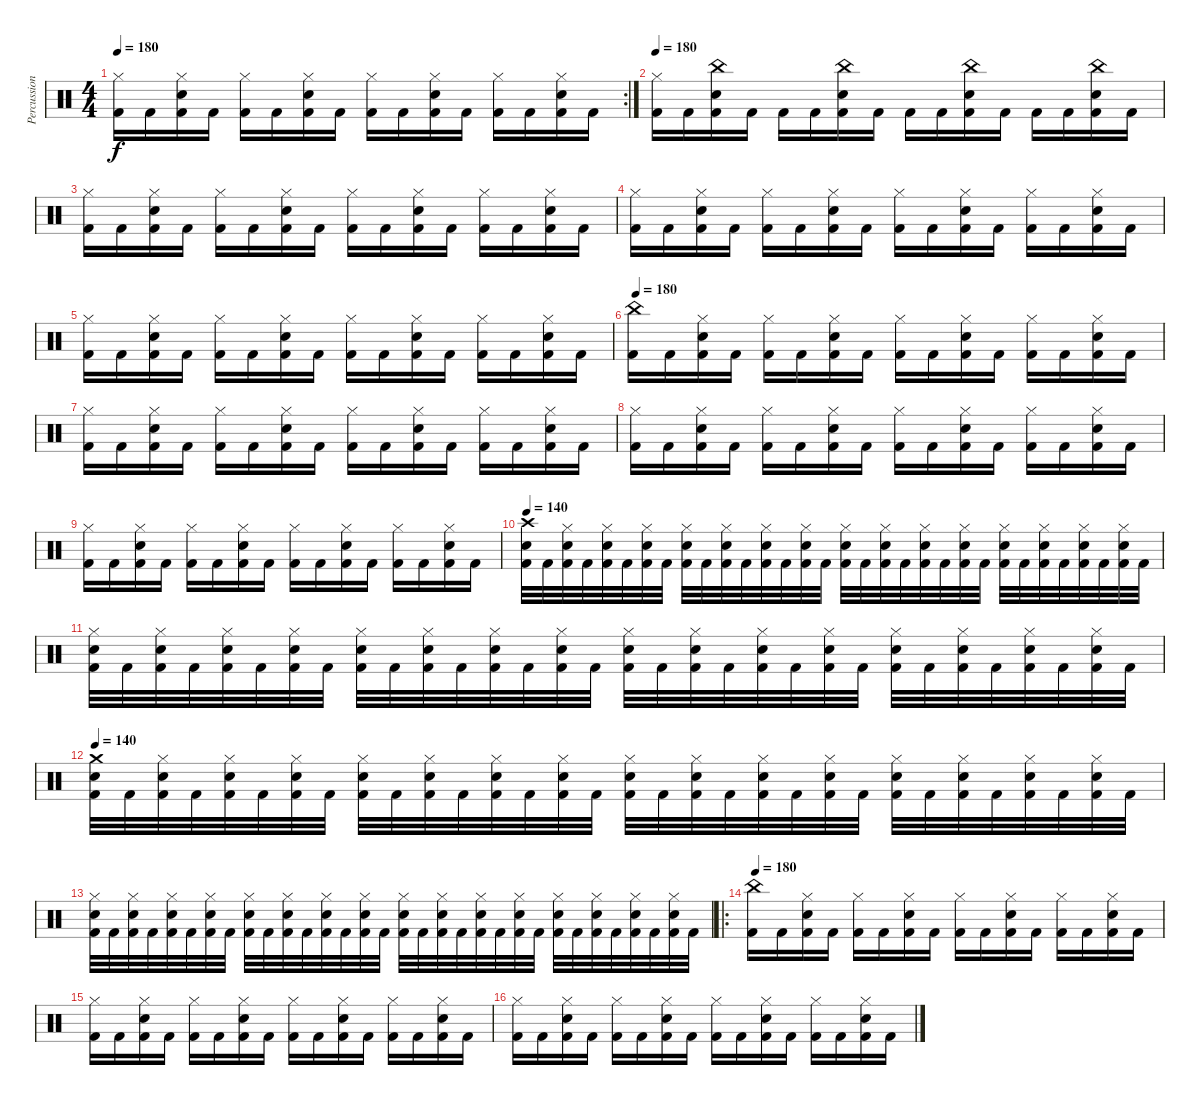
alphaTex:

\track ("Percussion" "Percussion") {instrument percussion}
\staff {score}
\articulation defaults
\rc 2
\ts (4 4)
\tempo 180
\clef neutral
\ks c
("Hi-Hat (closed)" "Kick (hit) 2").16{dy f} "Kick (hit) 2".16 ("Hi-Hat (closed)" "Electric Snare (hit)" "Kick (hit) 2").16 "Kick (hit) 2".16 ("Hi-Hat (closed)" "Kick (hit) 2").16 "Kick (hit) 2".16 ("Hi-Hat (closed)" "Electric Snare (hit)" "Kick (hit) 2").16 "Kick (hit) 2".16 ("Hi-Hat (closed)" "Kick (hit) 2").16 "Kick (hit) 2".16 ("Hi-Hat (closed)" "Electric Snare (hit)" "Kick (hit) 2").16 "Kick (hit) 2".16 ("Hi-Hat (closed)" "Kick (hit) 2").16 "Kick (hit) 2".16 ("Hi-Hat (closed)" "Electric Snare (hit)" "Kick (hit) 2").16 "Kick (hit) 2".16 |
\tempo 180
("Hi-Hat (closed)" "Kick (hit) 2").16 "Kick (hit) 2".16 ("China (hit)" "Electric Snare (hit)" "Kick (hit) 2").16 "Kick (hit) 2".16 "Kick (hit) 2".16 "Kick (hit) 2".16 ("China (hit)" "Electric Snare (hit)" "Kick (hit) 2").16 "Kick (hit) 2".16 "Kick (hit) 2".16 "Kick (hit) 2".16 ("China (hit)" "Electric Snare (hit)" "Kick (hit) 2").16 "Kick (hit) 2".16 "Kick (hit) 2".16 "Kick (hit) 2".16 ("China (hit)" "Electric Snare (hit)" "Kick (hit) 2").16 "Kick (hit) 2".16 |
("Hi-Hat (closed)" "Kick (hit) 2").16 "Kick (hit) 2".16 ("Hi-Hat (closed)" "Electric Snare (hit)" "Kick (hit) 2").16 "Kick (hit) 2".16 ("Hi-Hat (closed)" "Kick (hit) 2").16 "Kick (hit) 2".16 ("Hi-Hat (closed)" "Electric Snare (hit)" "Kick (hit) 2").16 "Kick (hit) 2".16 ("Hi-Hat (closed)" "Kick (hit) 2").16 "Kick (hit) 2".16 ("Hi-Hat (closed)" "Electric Snare (hit)" "Kick (hit) 2").16 "Kick (hit) 2".16 ("Hi-Hat (closed)" "Kick (hit) 2").16 "Kick (hit) 2".16 ("Hi-Hat (closed)" "Electric Snare (hit)" "Kick (hit) 2").16 "Kick (hit) 2".16 |
("Hi-Hat (closed)" "Kick (hit) 2").16 "Kick (hit) 2".16 ("Hi-Hat (closed)" "Electric Snare (hit)" "Kick (hit) 2").16 "Kick (hit) 2".16 ("Hi-Hat (closed)" "Kick (hit) 2").16 "Kick (hit) 2".16 ("Hi-Hat (closed)" "Electric Snare (hit)" "Kick (hit) 2").16 "Kick (hit) 2".16 ("Hi-Hat (closed)" "Kick (hit) 2").16 "Kick (hit) 2".16 ("Hi-Hat (closed)" "Electric Snare (hit)" "Kick (hit) 2").16 "Kick (hit) 2".16 ("Hi-Hat (closed)" "Kick (hit) 2").16 "Kick (hit) 2".16 ("Hi-Hat (closed)" "Electric Snare (hit)" "Kick (hit) 2").16 "Kick (hit) 2".16 |
("Hi-Hat (closed)" "Kick (hit) 2").16 "Kick (hit) 2".16 ("Hi-Hat (closed)" "Electric Snare (hit)" "Kick (hit) 2").16 "Kick (hit) 2".16 ("Hi-Hat (closed)" "Kick (hit) 2").16 "Kick (hit) 2".16 ("Hi-Hat (closed)" "Electric Snare (hit)" "Kick (hit) 2").16 "Kick (hit) 2".16 ("Hi-Hat (closed)" "Kick (hit) 2").16 "Kick (hit) 2".16 ("Hi-Hat (closed)" "Electric Snare (hit)" "Kick (hit) 2").16 "Kick (hit) 2".16 ("Hi-Hat (closed)" "Kick (hit) 2").16 "Kick (hit) 2".16 ("Hi-Hat (closed)" "Electric Snare (hit)" "Kick (hit) 2").16 "Kick (hit) 2".16 |
\tempo 180
("China (hit)" "Kick (hit) 2").16 "Kick (hit) 2".16 ("Hi-Hat (closed)" "Electric Snare (hit)" "Kick (hit) 2").16 "Kick (hit) 2".16 ("Hi-Hat (closed)" "Kick (hit) 2").16 "Kick (hit) 2".16 ("Hi-Hat (closed)" "Electric Snare (hit)" "Kick (hit) 2").16 "Kick (hit) 2".16 ("Hi-Hat (closed)" "Kick (hit) 2").16 "Kick (hit) 2".16 ("Hi-Hat (closed)" "Electric Snare (hit)" "Kick (hit) 2").16 "Kick (hit) 2".16 ("Hi-Hat (closed)" "Kick (hit) 2").16 "Kick (hit) 2".16 ("Hi-Hat (closed)" "Electric Snare (hit)" "Kick (hit) 2").16 "Kick (hit) 2".16 |
("Hi-Hat (closed)" "Kick (hit) 2").16 "Kick (hit) 2".16 ("Hi-Hat (closed)" "Electric Snare (hit)" "Kick (hit) 2").16 "Kick (hit) 2".16 ("Hi-Hat (closed)" "Kick (hit) 2").16 "Kick (hit) 2".16 ("Hi-Hat (closed)" "Electric Snare (hit)" "Kick (hit) 2").16 "Kick (hit) 2".16 ("Hi-Hat (closed)" "Kick (hit) 2").16 "Kick (hit) 2".16 ("Hi-Hat (closed)" "Electric Snare (hit)" "Kick (hit) 2").16 "Kick (hit) 2".16 ("Hi-Hat (closed)" "Kick (hit) 2").16 "Kick (hit) 2".16 ("Hi-Hat (closed)" "Electric Snare (hit)" "Kick (hit) 2").16 "Kick (hit) 2".16 |
("Hi-Hat (closed)" "Kick (hit) 2").16 "Kick (hit) 2".16 ("Hi-Hat (closed)" "Electric Snare (hit)" "Kick (hit) 2").16 "Kick (hit) 2".16 ("Hi-Hat (closed)" "Kick (hit) 2").16 "Kick (hit) 2".16 ("Hi-Hat (closed)" "Electric Snare (hit)" "Kick (hit) 2").16 "Kick (hit) 2".16 ("Hi-Hat (closed)" "Kick (hit) 2").16 "Kick (hit) 2".16 ("Hi-Hat (closed)" "Electric Snare (hit)" "Kick (hit) 2").16 "Kick (hit) 2".16 ("Hi-Hat (closed)" "Kick (hit) 2").16 "Kick (hit) 2".16 ("Hi-Hat (closed)" "Electric Snare (hit)" "Kick (hit) 2").16 "Kick (hit) 2".16 |
("Hi-Hat (closed)" "Kick (hit) 2").16 "Kick (hit) 2".16 ("Hi-Hat (closed)" "Electric Snare (hit)" "Kick (hit) 2").16 "Kick (hit) 2".16 ("Hi-Hat (closed)" "Kick (hit) 2").16 "Kick (hit) 2".16 ("Hi-Hat (closed)" "Electric Snare (hit)" "Kick (hit) 2").16 "Kick (hit) 2".16 ("Hi-Hat (closed)" "Kick (hit) 2").16 "Kick (hit) 2".16 ("Hi-Hat (closed)" "Electric Snare (hit)" "Kick (hit) 2").16 "Kick (hit) 2".16 ("Hi-Hat (closed)" "Kick (hit) 2").16 "Kick (hit) 2".16 ("Hi-Hat (closed)" "Electric Snare (hit)" "Kick (hit) 2").16 "Kick (hit) 2".16 |
\tempo 140
("Crash high (hit)" "Electric Snare (hit)" "Kick (hit) 2").32 "Kick (hit) 2".32 ("Hi-Hat (closed)" "Electric Snare (hit)" "Kick (hit) 2").32 "Kick (hit) 2".32 ("Hi-Hat (closed)" "Electric Snare (hit)" "Kick (hit) 2").32 "Kick (hit) 2".32 ("Hi-Hat (closed)" "Electric Snare (hit)" "Kick (hit) 2").32 "Kick (hit) 2".32 ("Hi-Hat (closed)" "Electric Snare (hit)" "Kick (hit) 2").32 "Kick (hit) 2".32 ("Hi-Hat (closed)" "Electric Snare (hit)" "Kick (hit) 2").32 "Kick (hit) 2".32 ("Hi-Hat (closed)" "Electric Snare (hit)" "Kick (hit) 2").32 "Kick (hit) 2".32 ("Hi-Hat (closed)" "Electric Snare (hit)" "Kick (hit) 2").32 "Kick (hit) 2".32 ("Hi-Hat (closed)" "Electric Snare (hit)" "Kick (hit) 2").32 "Kick (hit) 2".32 ("Hi-Hat (closed)" "Electric Snare (hit)" "Kick (hit) 2").32 "Kick (hit) 2".32 ("Hi-Hat (closed)" "Electric Snare (hit)" "Kick (hit) 2").32 "Kick (hit) 2".32 ("Hi-Hat (closed)" "Electric Snare (hit)" "Kick (hit) 2").32 "Kick (hit) 2".32 ("Hi-Hat (closed)" "Electric Snare (hit)" "Kick (hit) 2").32 "Kick (hit) 2".32 ("Hi-Hat (closed)" "Electric Snare (hit)" "Kick (hit) 2").32 "Kick (hit) 2".32 ("Hi-Hat (closed)" "Electric Snare (hit)" "Kick (hit) 2").32 "Kick (hit) 2".32 ("Hi-Hat (closed)" "Electric Snare (hit)" "Kick (hit) 2").32 "Kick (hit) 2".32 |
("Hi-Hat (closed)" "Electric Snare (hit)" "Kick (hit) 2").32 "Kick (hit) 2".32 ("Hi-Hat (closed)" "Electric Snare (hit)" "Kick (hit) 2").32 "Kick (hit) 2".32 ("Hi-Hat (closed)" "Electric Snare (hit)" "Kick (hit) 2").32 "Kick (hit) 2".32 ("Hi-Hat (closed)" "Electric Snare (hit)" "Kick (hit) 2").32 "Kick (hit) 2".32 ("Hi-Hat (closed)" "Electric Snare (hit)" "Kick (hit) 2").32 "Kick (hit) 2".32 ("Hi-Hat (closed)" "Electric Snare (hit)" "Kick (hit) 2").32 "Kick (hit) 2".32 ("Hi-Hat (closed)" "Electric Snare (hit)" "Kick (hit) 2").32 "Kick (hit) 2".32 ("Hi-Hat (closed)" "Electric Snare (hit)" "Kick (hit) 2").32 "Kick (hit) 2".32 ("Hi-Hat (closed)" "Electric Snare (hit)" "Kick (hit) 2").32 "Kick (hit) 2".32 ("Hi-Hat (closed)" "Electric Snare (hit)" "Kick (hit) 2").32 "Kick (hit) 2".32 ("Hi-Hat (closed)" "Electric Snare (hit)" "Kick (hit) 2").32 "Kick (hit) 2".32 ("Hi-Hat (closed)" "Electric Snare (hit)" "Kick (hit) 2").32 "Kick (hit) 2".32 ("Hi-Hat (closed)" "Electric Snare (hit)" "Kick (hit) 2").32 "Kick (hit) 2".32 ("Hi-Hat (closed)" "Electric Snare (hit)" "Kick (hit) 2").32 "Kick (hit) 2".32 ("Hi-Hat (closed)" "Electric Snare (hit)" "Kick (hit) 2").32 "Kick (hit) 2".32 ("Hi-Hat (closed)" "Electric Snare (hit)" "Kick (hit) 2").32 "Kick (hit) 2".32 |
\tempo 140
("Crash medium (hit)" "Electric Snare (hit)" "Kick (hit) 2").32 "Kick (hit) 2".32 ("Hi-Hat (closed)" "Electric Snare (hit)" "Kick (hit) 2").32 "Kick (hit) 2".32 ("Hi-Hat (closed)" "Electric Snare (hit)" "Kick (hit) 2").32 "Kick (hit) 2".32 ("Hi-Hat (closed)" "Electric Snare (hit)" "Kick (hit) 2").32 "Kick (hit) 2".32 ("Hi-Hat (closed)" "Electric Snare (hit)" "Kick (hit) 2").32 "Kick (hit) 2".32 ("Hi-Hat (closed)" "Electric Snare (hit)" "Kick (hit) 2").32 "Kick (hit) 2".32 ("Hi-Hat (closed)" "Electric Snare (hit)" "Kick (hit) 2").32 "Kick (hit) 2".32 ("Hi-Hat (closed)" "Electric Snare (hit)" "Kick (hit) 2").32 "Kick (hit) 2".32 ("Hi-Hat (closed)" "Electric Snare (hit)" "Kick (hit) 2").32 "Kick (hit) 2".32 ("Hi-Hat (closed)" "Electric Snare (hit)" "Kick (hit) 2").32 "Kick (hit) 2".32 ("Hi-Hat (closed)" "Electric Snare (hit)" "Kick (hit) 2").32 "Kick (hit) 2".32 ("Hi-Hat (closed)" "Electric Snare (hit)" "Kick (hit) 2").32 "Kick (hit) 2".32 ("Hi-Hat (closed)" "Electric Snare (hit)" "Kick (hit) 2").32 "Kick (hit) 2".32 ("Hi-Hat (closed)" "Electric Snare (hit)" "Kick (hit) 2").32 "Kick (hit) 2".32 ("Hi-Hat (closed)" "Electric Snare (hit)" "Kick (hit) 2").32 "Kick (hit) 2".32 ("Hi-Hat (closed)" "Electric Snare (hit)" "Kick (hit) 2").32 "Kick (hit) 2".32 |
("Hi-Hat (closed)" "Electric Snare (hit)" "Kick (hit) 2").32 "Kick (hit) 2".32 ("Hi-Hat (closed)" "Electric Snare (hit)" "Kick (hit) 2").32 "Kick (hit) 2".32 ("Hi-Hat (closed)" "Electric Snare (hit)" "Kick (hit) 2").32 "Kick (hit) 2".32 ("Hi-Hat (closed)" "Electric Snare (hit)" "Kick (hit) 2").32 "Kick (hit) 2".32 ("Hi-Hat (closed)" "Electric Snare (hit)" "Kick (hit) 2").32 "Kick (hit) 2".32 ("Hi-Hat (closed)" "Electric Snare (hit)" "Kick (hit) 2").32 "Kick (hit) 2".32 ("Hi-Hat (closed)" "Electric Snare (hit)" "Kick (hit) 2").32 "Kick (hit) 2".32 ("Hi-Hat (closed)" "Electric Snare (hit)" "Kick (hit) 2").32 "Kick (hit) 2".32 ("Hi-Hat (closed)" "Electric Snare (hit)" "Kick (hit) 2").32 "Kick (hit) 2".32 ("Hi-Hat (closed)" "Electric Snare (hit)" "Kick (hit) 2").32 "Kick (hit) 2".32 ("Hi-Hat (closed)" "Electric Snare (hit)" "Kick (hit) 2").32 "Kick (hit) 2".32 ("Hi-Hat (closed)" "Electric Snare (hit)" "Kick (hit) 2").32 "Kick (hit) 2".32 ("Hi-Hat (closed)" "Electric Snare (hit)" "Kick (hit) 2").32 "Kick (hit) 2".32 ("Hi-Hat (closed)" "Electric Snare (hit)" "Kick (hit) 2").32 "Kick (hit) 2".32 ("Hi-Hat (closed)" "Electric Snare (hit)" "Kick (hit) 2").32 "Kick (hit) 2".32 ("Hi-Hat (closed)" "Electric Snare (hit)" "Kick (hit) 2").32 "Kick (hit) 2".32 |
\ro
\tempo 180
("China (hit)" "Kick (hit) 2").16 "Kick (hit) 2".16 ("Hi-Hat (closed)" "Electric Snare (hit)" "Kick (hit) 2").16 "Kick (hit) 2".16 ("Hi-Hat (closed)" "Kick (hit) 2").16 "Kick (hit) 2".16 ("Hi-Hat (closed)" "Electric Snare (hit)" "Kick (hit) 2").16 "Kick (hit) 2".16 ("Hi-Hat (closed)" "Kick (hit) 2").16 "Kick (hit) 2".16 ("Hi-Hat (closed)" "Electric Snare (hit)" "Kick (hit) 2").16 "Kick (hit) 2".16 ("Hi-Hat (closed)" "Kick (hit) 2").16 "Kick (hit) 2".16 ("Hi-Hat (closed)" "Electric Snare (hit)" "Kick (hit) 2").16 "Kick (hit) 2".16 |
("Hi-Hat (closed)" "Kick (hit) 2").16 "Kick (hit) 2".16 ("Hi-Hat (closed)" "Electric Snare (hit)" "Kick (hit) 2").16 "Kick (hit) 2".16 ("Hi-Hat (closed)" "Kick (hit) 2").16 "Kick (hit) 2".16 ("Hi-Hat (closed)" "Electric Snare (hit)" "Kick (hit) 2").16 "Kick (hit) 2".16 ("Hi-Hat (closed)" "Kick (hit) 2").16 "Kick (hit) 2".16 ("Hi-Hat (closed)" "Electric Snare (hit)" "Kick (hit) 2").16 "Kick (hit) 2".16 ("Hi-Hat (closed)" "Kick (hit) 2").16 "Kick (hit) 2".16 ("Hi-Hat (closed)" "Electric Snare (hit)" "Kick (hit) 2").16 "Kick (hit) 2".16 |
("Hi-Hat (closed)" "Kick (hit) 2").16 "Kick (hit) 2".16 ("Hi-Hat (closed)" "Electric Snare (hit)" "Kick (hit) 2").16 "Kick (hit) 2".16 ("Hi-Hat (closed)" "Kick (hit) 2").16 "Kick (hit) 2".16 ("Hi-Hat (closed)" "Electric Snare (hit)" "Kick (hit) 2").16 "Kick (hit) 2".16 ("Hi-Hat (closed)" "Kick (hit) 2").16 "Kick (hit) 2".16 ("Hi-Hat (closed)" "Electric Snare (hit)" "Kick (hit) 2").16 "Kick (hit) 2".16 ("Hi-Hat (closed)" "Kick (hit) 2").16 "Kick (hit) 2".16 ("Hi-Hat (closed)" "Electric Snare (hit)" "Kick (hit) 2").16 "Kick (hit) 2".16
